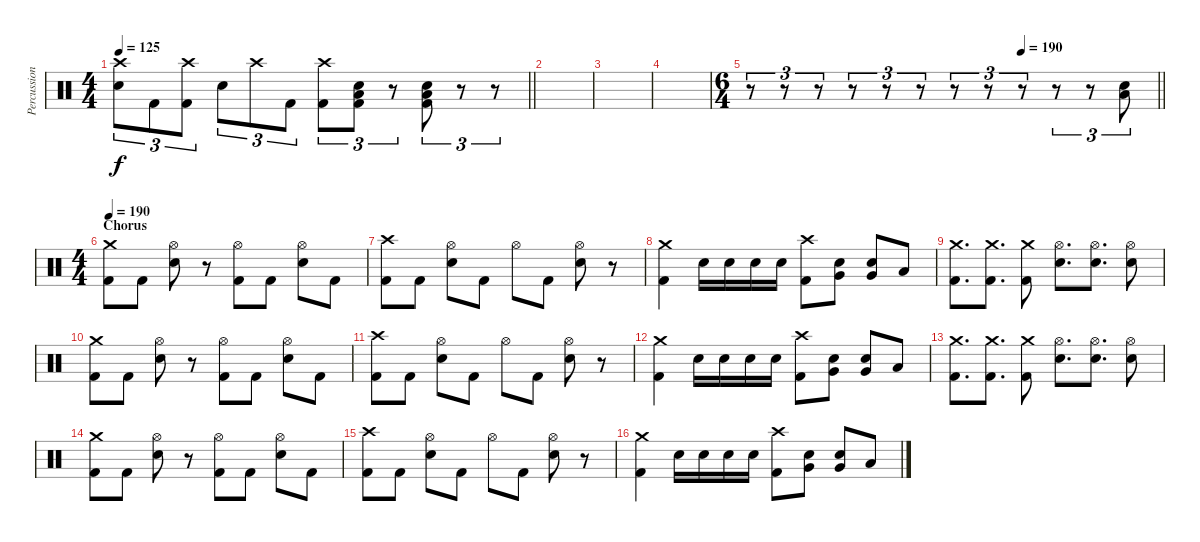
\track ("Percussion" "Percussion") {instrument percussion}
\staff {score}
\articulation defaults
\ts (4 4)
\tempo 125
\clef neutral
\barLineRight lightlight
\ks c
("Crash high (hit)" "Electric Snare (hit)").8{tu (3 2) dy f} "Kick (hit) 2".8{tu (3 2)} ("Crash high (hit)" "Kick (hit) 2").8{tu (3 2)} "Electric Snare (hit)".8{tu (3 2)} "Crash high (hit)".8{tu (3 2)} "Kick (hit) 2".8{tu (3 2)} ("Crash high (hit)" "Kick (hit) 2").8{tu (3 2)} ("Low Floor Tom (hit)" "Electric Snare (hit)" "Kick (hit) 2").8{tu (3 2)} r.8{tu (3 2)} ("Low Floor Tom (hit)" "Electric Snare (hit)" "Kick (hit) 2").8{tu (3 2)} r.8{tu (3 2)} r.8{tu (3 2)} |
|
|
|
\ts (6 4)
\tempo (190 0.6666666666666666)
\barLineRight lightlight
r.8{tu (3 2)} r.8{tu (3 2)} r.8{tu (3 2)} r.8{tu (3 2)} r.8{tu (3 2)} r.8{tu (3 2)} r.8{tu (3 2)} r.8{tu (3 2)} r.8{tu (3 2)} r.8{tu (3 2)} r.8{tu (3 2)} ("Low Floor Tom (hit)" "Electric Snare (hit)").8{tu (3 2)} |
\ts (4 4)
\section ("" "Chorus")
\tempo 190
("Crash medium (hit)" "Kick (hit) 2").8 "Kick (hit) 2".8 ("Hi-Hat (open)" "Electric Snare (hit)").8 r.8 ("Hi-Hat (open)" "Kick (hit) 2").8 "Kick (hit) 2".8 ("Hi-Hat (open)" "Electric Snare (hit)").8 "Kick (hit) 2".8 |
("Crash high (hit)" "Kick (hit) 2").8 "Kick (hit) 2".8 ("Hi-Hat (open)" "Electric Snare (hit)").8 "Kick (hit) 2".8 "Hi-Hat (open)".8 "Kick (hit) 2".8 ("Hi-Hat (open)" "Electric Snare (hit)").8 r.8 |
("Crash medium (hit)" "Kick (hit) 2").4 "Electric Snare (hit)".16 "Electric Snare (hit)".16 "Electric Snare (hit)".16 "Electric Snare (hit)".16 ("Crash high (hit)" "Kick (hit) 2").8 ("Very Low Tom (hit)" "Electric Snare (hit)").8 ("Very Low Tom (hit)" "Electric Snare (hit)").8 "Low Floor Tom (hit)".8 |
("Crash medium (hit)" "Kick (hit) 2").8{d} ("Crash medium (hit)" "Kick (hit) 2").8{d} ("Crash medium (hit)" "Kick (hit) 2").8 ("Hi-Hat (open)" "Electric Snare (hit)").8{d} ("Hi-Hat (open)" "Electric Snare (hit)").8{d} ("Hi-Hat (open)" "Electric Snare (hit)").8 |
("Crash medium (hit)" "Kick (hit) 2").8 "Kick (hit) 2".8 ("Hi-Hat (open)" "Electric Snare (hit)").8 r.8 ("Hi-Hat (open)" "Kick (hit) 2").8 "Kick (hit) 2".8 ("Hi-Hat (open)" "Electric Snare (hit)").8 "Kick (hit) 2".8 |
("Crash high (hit)" "Kick (hit) 2").8 "Kick (hit) 2".8 ("Hi-Hat (open)" "Electric Snare (hit)").8 "Kick (hit) 2".8 "Hi-Hat (open)".8 "Kick (hit) 2".8 ("Hi-Hat (open)" "Electric Snare (hit)").8 r.8 |
("Crash medium (hit)" "Kick (hit) 2").4 "Electric Snare (hit)".16 "Electric Snare (hit)".16 "Electric Snare (hit)".16 "Electric Snare (hit)".16 ("Crash high (hit)" "Kick (hit) 2").8 ("Very Low Tom (hit)" "Electric Snare (hit)").8 ("Very Low Tom (hit)" "Electric Snare (hit)").8 "Low Floor Tom (hit)".8 |
("Crash medium (hit)" "Kick (hit) 2").8{d} ("Crash medium (hit)" "Kick (hit) 2").8{d} ("Crash medium (hit)" "Kick (hit) 2").8 ("Hi-Hat (open)" "Electric Snare (hit)").8{d} ("Hi-Hat (open)" "Electric Snare (hit)").8{d} ("Hi-Hat (open)" "Electric Snare (hit)").8 |
("Crash medium (hit)" "Kick (hit) 2").8 "Kick (hit) 2".8 ("Hi-Hat (open)" "Electric Snare (hit)").8 r.8 ("Hi-Hat (open)" "Kick (hit) 2").8 "Kick (hit) 2".8 ("Hi-Hat (open)" "Electric Snare (hit)").8 "Kick (hit) 2".8 |
("Crash high (hit)" "Kick (hit) 2").8 "Kick (hit) 2".8 ("Hi-Hat (open)" "Electric Snare (hit)").8 "Kick (hit) 2".8 "Hi-Hat (open)".8 "Kick (hit) 2".8 ("Hi-Hat (open)" "Electric Snare (hit)").8 r.8 |
("Crash medium (hit)" "Kick (hit) 2").4 "Electric Snare (hit)".16 "Electric Snare (hit)".16 "Electric Snare (hit)".16 "Electric Snare (hit)".16 ("Crash high (hit)" "Kick (hit) 2").8 ("Very Low Tom (hit)" "Electric Snare (hit)").8 ("Very Low Tom (hit)" "Electric Snare (hit)").8 "Low Floor Tom (hit)".8
